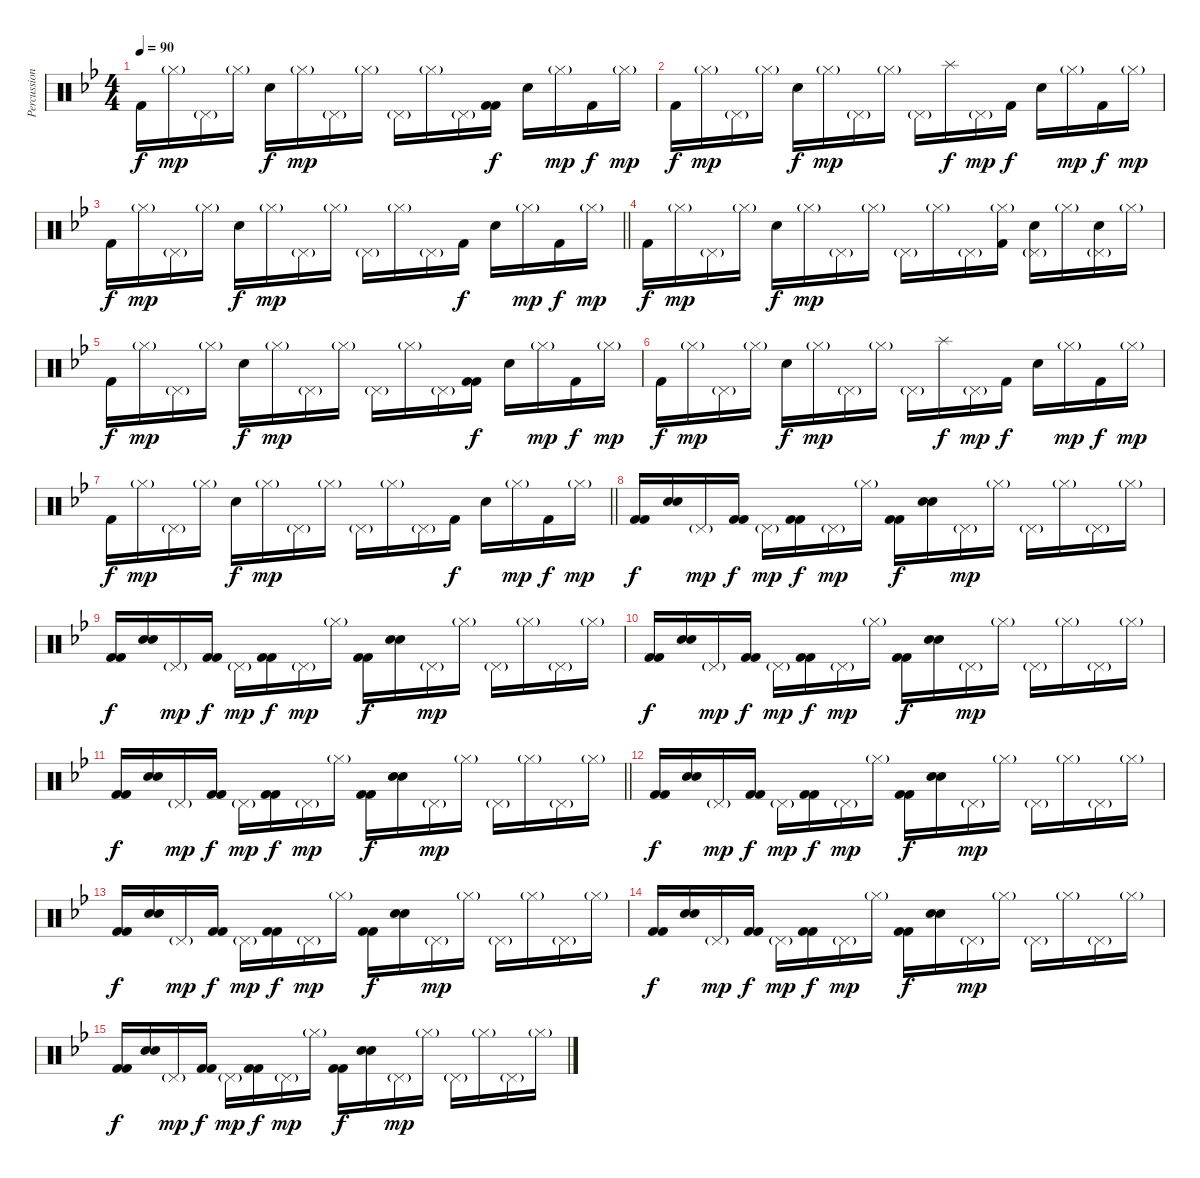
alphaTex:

\track ("Percussion" "Percussion") {instrument percussion}
\staff {score}
\articulation defaults
\ts (4 4)
\tempo 90
\clef neutral
\ks bb "Kick (hit) 2".16{dy f} "Hi-Hat (closed)"{g}.16{dy mp} "Pedal Hi-Hat (hit)"{g}.16 "Hi-Hat (closed)"{g}.16 "Snare (hit) 2".16{dy f} "Hi-Hat (closed)"{g}.16{dy mp} "Pedal Hi-Hat (hit)"{g}.16 "Hi-Hat (closed)"{g}.16 "Pedal Hi-Hat (hit)"{g}.16 "Hi-Hat (closed)"{g}.16 "Pedal Hi-Hat (hit)"{g}.16
("Kick (hit) 2" "Kick (hit) 2").16{dy f} "Snare (hit) 2".16 "Hi-Hat (closed)"{g}.16{dy mp} "Kick (hit) 2".16{dy f} "Hi-Hat (closed)"{g}.16{dy mp} |
"Kick (hit) 2".16{dy f} "Hi-Hat (closed)"{g}.16{dy mp} "Pedal Hi-Hat (hit)"{g}.16 "Hi-Hat (closed)"{g}.16 "Snare (hit) 2".16{dy f} "Hi-Hat (closed)"{g}.16{dy mp} "Pedal Hi-Hat (hit)"{g}.16 "Hi-Hat (closed)"{g}.16 "Pedal Hi-Hat (hit)"{g}.16 "Splash (hit)".16{dy f} "Pedal Hi-Hat (hit)"{g}.16{dy mp} "Kick (hit) 2".16{dy f} "Snare (hit) 2".16 "Hi-Hat (closed)"{g}.16{dy mp} "Kick (hit) 2".16{dy f} "Hi-Hat (closed)"{g}.16{dy mp} |
\barLineRight lightlight "Kick (hit) 2".16{dy f} "Hi-Hat (closed)"{g}.16{dy mp} "Pedal Hi-Hat (hit)"{g}.16 "Hi-Hat (closed)"{g}.16 "Snare (hit) 2".16{dy f} "Hi-Hat (closed)"{g}.16{dy mp} "Pedal Hi-Hat (hit)"{g}.16 "Hi-Hat (closed)"{g}.16 "Pedal Hi-Hat (hit)"{g}.16 "Hi-Hat (closed)"{g}.16 "Pedal Hi-Hat (hit)"{g}.16 "Kick (hit) 2".16{dy f} "Snare (hit) 2".16 "Hi-Hat (closed)"{g}.16{dy mp} "Kick (hit) 2".16{dy f} "Hi-Hat (closed)"{g}.16{dy mp}
|
"Kick (hit) 2".16{dy f} "Hi-Hat (closed)"{g}.16{dy mp} "Pedal Hi-Hat (hit)"{g}.16 "Hi-Hat (closed)"{g}.16 "Snare (hit) 2".16{dy f} "Hi-Hat (closed)"{g}.16{dy mp} "Pedal Hi-Hat (hit)"{g}.16 "Hi-Hat (closed)"{g}.16 "Pedal Hi-Hat (hit)"{g}.16 "Hi-Hat (closed)"{g}.16 "Pedal Hi-Hat (hit)"{g}.16 ("Hi-Hat (closed)"{g} "Kick (hit) 2").16 ("Pedal Hi-Hat (hit)"{g} "Snare (hit) 2").16 "Hi-Hat (closed)"{g}.16 ("Pedal Hi-Hat (hit)"{g} "Snare (hit) 2").16 "Hi-Hat (closed)"{g}.16 |
"Kick (hit) 2".16{dy f} "Hi-Hat (closed)"{g}.16{dy mp} "Pedal Hi-Hat (hit)"{g}.16 "Hi-Hat (closed)"{g}.16 "Snare (hit) 2".16{dy f} "Hi-Hat (closed)"{g}.16{dy mp} "Pedal Hi-Hat (hit)"{g}.16 "Hi-Hat (closed)"{g}.16 "Pedal Hi-Hat (hit)"{g}.16 "Hi-Hat (closed)"{g}.16 "Pedal Hi-Hat (hit)"{g}.16 ("Kick (hit) 2" "Kick (hit) 2").16{dy f} "Snare (hit) 2".16 "Hi-Hat (closed)"{g}.16{dy mp} "Kick (hit) 2".16{dy f} "Hi-Hat (closed)"{g}.16{dy mp} |
"Kick (hit) 2".16{dy f} "Hi-Hat (closed)"{g}.16{dy mp} "Pedal Hi-Hat (hit)"{g}.16 "Hi-Hat (closed)"{g}.16 "Snare (hit) 2".16{dy f} "Hi-Hat (closed)"{g}.16{dy mp} "Pedal Hi-Hat (hit)"{g}.16 "Hi-Hat (closed)"{g}.16 "Pedal Hi-Hat (hit)"{g}.16 "Splash (hit)".16{dy f} "Pedal Hi-Hat (hit)"{g}.16{dy mp} "Kick (hit) 2".16{dy f} "Snare (hit) 2".16 "Hi-Hat (closed)"{g}.16{dy mp} "Kick (hit) 2".16{dy f} "Hi-Hat (closed)"{g}.16{dy mp} |
\barLineRight lightlight "Kick (hit) 2".16{dy f} "Hi-Hat (closed)"{g}.16{dy mp} "Pedal Hi-Hat (hit)"{g}.16 "Hi-Hat (closed)"{g}.16 "Snare (hit) 2".16{dy f} "Hi-Hat (closed)"{g}.16{dy mp} "Pedal Hi-Hat (hit)"{g}.16 "Hi-Hat (closed)"{g}.16 "Pedal Hi-Hat (hit)"{g}.16 "Hi-Hat (closed)"{g}.16 "Pedal Hi-Hat (hit)"{g}.16 "Kick (hit) 2".16{dy f} "Snare (hit) 2".16 "Hi-Hat (closed)"{g}.16{dy mp} "Kick (hit) 2".16{dy f} "Hi-Hat (closed)"{g}.16{dy mp}
|
("Kick (hit) 2" "Kick (hit) 2").16{dy f} ("Snare (hit) 2" "Electric Snare (hit)").16 "Pedal Hi-Hat (hit)"{g}.16{dy mp} ("Kick (hit) 2" "Kick (hit) 2").16{dy f} "Pedal Hi-Hat (hit)"{g}.16{dy mp} ("Kick (hit) 2" "Kick (hit) 2").16{dy f} "Pedal Hi-Hat (hit)"{g}.16{dy mp} "Hi-Hat (closed)"{g}.16 ("Kick (hit) 2" "Kick (hit) 2").16{dy f} ("Snare (hit) 2" "Electric Snare (hit)").16 "Pedal Hi-Hat (hit)"{g}.16{dy mp} "Hi-Hat (closed)"{g}.16 "Pedal Hi-Hat (hit)"{g}.16 "Hi-Hat (closed)"{g}.16 "Pedal Hi-Hat (hit)"{g}.16 "Hi-Hat (closed)"{g}.16 |
("Kick (hit) 2" "Kick (hit) 2").16{dy f} ("Snare (hit) 2" "Electric Snare (hit)").16 "Pedal Hi-Hat (hit)"{g}.16{dy mp} ("Kick (hit) 2" "Kick (hit) 2").16{dy f} "Pedal Hi-Hat (hit)"{g}.16{dy mp} ("Kick (hit) 2" "Kick (hit) 2").16{dy f} "Pedal Hi-Hat (hit)"{g}.16{dy mp} "Hi-Hat (closed)"{g}.16 ("Kick (hit) 2" "Kick (hit) 2").16{dy f} ("Snare (hit) 2" "Electric Snare (hit)").16 "Pedal Hi-Hat (hit)"{g}.16{dy mp} "Hi-Hat (closed)"{g}.16 "Pedal Hi-Hat (hit)"{g}.16 "Hi-Hat (closed)"{g}.16 "Pedal Hi-Hat (hit)"{g}.16 "Hi-Hat (closed)"{g}.16 |
("Kick (hit) 2" "Kick (hit) 2").16{dy f} ("Snare (hit) 2" "Electric Snare (hit)").16 "Pedal Hi-Hat (hit)"{g}.16{dy mp} ("Kick (hit) 2" "Kick (hit) 2").16{dy f} "Pedal Hi-Hat (hit)"{g}.16{dy mp} ("Kick (hit) 2" "Kick (hit) 2").16{dy f} "Pedal Hi-Hat (hit)"{g}.16{dy mp} "Hi-Hat (closed)"{g}.16 ("Kick (hit) 2" "Kick (hit) 2").16{dy f} ("Snare (hit) 2" "Electric Snare (hit)").16 "Pedal Hi-Hat (hit)"{g}.16{dy mp} "Hi-Hat (closed)"{g}.16 "Pedal Hi-Hat (hit)"{g}.16 "Hi-Hat (closed)"{g}.16 "Pedal Hi-Hat (hit)"{g}.16 "Hi-Hat (closed)"{g}.16 |
\barLineRight lightlight
("Kick (hit) 2" "Kick (hit) 2").16{dy f} ("Snare (hit) 2" "Electric Snare (hit)").16 "Pedal Hi-Hat (hit)"{g}.16{dy mp} ("Kick (hit) 2" "Kick (hit) 2").16{dy f} "Pedal Hi-Hat (hit)"{g}.16{dy mp} ("Kick (hit) 2" "Kick (hit) 2").16{dy f} "Pedal Hi-Hat (hit)"{g}.16{dy mp} "Hi-Hat (closed)"{g}.16 ("Kick (hit) 2" "Kick (hit) 2").16{dy f} ("Snare (hit) 2" "Electric Snare (hit)").16 "Pedal Hi-Hat (hit)"{g}.16{dy mp} "Hi-Hat (closed)"{g}.16 "Pedal Hi-Hat (hit)"{g}.16 "Hi-Hat (closed)"{g}.16 "Pedal Hi-Hat (hit)"{g}.16 "Hi-Hat (closed)"{g}.16 |
("Kick (hit) 2" "Kick (hit) 2").16{dy f} ("Snare (hit) 2" "Electric Snare (hit)").16 "Pedal Hi-Hat (hit)"{g}.16{dy mp} ("Kick (hit) 2" "Kick (hit) 2").16{dy f} "Pedal Hi-Hat (hit)"{g}.16{dy mp} ("Kick (hit) 2" "Kick (hit) 2").16{dy f} "Pedal Hi-Hat (hit)"{g}.16{dy mp} "Hi-Hat (closed)"{g}.16 ("Kick (hit) 2" "Kick (hit) 2").16{dy f} ("Snare (hit) 2" "Electric Snare (hit)").16 "Pedal Hi-Hat (hit)"{g}.16{dy mp} "Hi-Hat (closed)"{g}.16 "Pedal Hi-Hat (hit)"{g}.16 "Hi-Hat (closed)"{g}.16 "Pedal Hi-Hat (hit)"{g}.16 "Hi-Hat (closed)"{g}.16 |
("Kick (hit) 2" "Kick (hit) 2").16{dy f} ("Snare (hit) 2" "Electric Snare (hit)").16 "Pedal Hi-Hat (hit)"{g}.16{dy mp} ("Kick (hit) 2" "Kick (hit) 2").16{dy f} "Pedal Hi-Hat (hit)"{g}.16{dy mp} ("Kick (hit) 2" "Kick (hit) 2").16{dy f} "Pedal Hi-Hat (hit)"{g}.16{dy mp} "Hi-Hat (closed)"{g}.16 ("Kick (hit) 2" "Kick (hit) 2").16{dy f} ("Snare (hit) 2" "Electric Snare (hit)").16 "Pedal Hi-Hat (hit)"{g}.16{dy mp} "Hi-Hat (closed)"{g}.16 "Pedal Hi-Hat (hit)"{g}.16 "Hi-Hat (closed)"{g}.16 "Pedal Hi-Hat (hit)"{g}.16 "Hi-Hat (closed)"{g}.16 |
("Kick (hit) 2" "Kick (hit) 2").16{dy f} ("Snare (hit) 2" "Electric Snare (hit)").16 "Pedal Hi-Hat (hit)"{g}.16{dy mp} ("Kick (hit) 2" "Kick (hit) 2").16{dy f} "Pedal Hi-Hat (hit)"{g}.16{dy mp} ("Kick (hit) 2" "Kick (hit) 2").16{dy f} "Pedal Hi-Hat (hit)"{g}.16{dy mp} "Hi-Hat (closed)"{g}.16 ("Kick (hit) 2" "Kick (hit) 2").16{dy f} ("Snare (hit) 2" "Electric Snare (hit)").16 "Pedal Hi-Hat (hit)"{g}.16{dy mp} "Hi-Hat (closed)"{g}.16 "Pedal Hi-Hat (hit)"{g}.16 "Hi-Hat (closed)"{g}.16 "Pedal Hi-Hat (hit)"{g}.16 "Hi-Hat (closed)"{g}.16 |
("Kick (hit) 2" "Kick (hit) 2").16{dy f} ("Snare (hit) 2" "Electric Snare (hit)").16 "Pedal Hi-Hat (hit)"{g}.16{dy mp} ("Kick (hit) 2" "Kick (hit) 2").16{dy f} "Pedal Hi-Hat (hit)"{g}.16{dy mp} ("Kick (hit) 2" "Kick (hit) 2").16{dy f} "Pedal Hi-Hat (hit)"{g}.16{dy mp} "Hi-Hat (closed)"{g}.16 ("Kick (hit) 2" "Kick (hit) 2").16{dy f} ("Snare (hit) 2" "Electric Snare (hit)").16 "Pedal Hi-Hat (hit)"{g}.16{dy mp} "Hi-Hat (closed)"{g}.16 "Pedal Hi-Hat (hit)"{g}.16 "Hi-Hat (closed)"{g}.16 "Pedal Hi-Hat (hit)"{g}.16 "Hi-Hat (closed)"{g}.16
